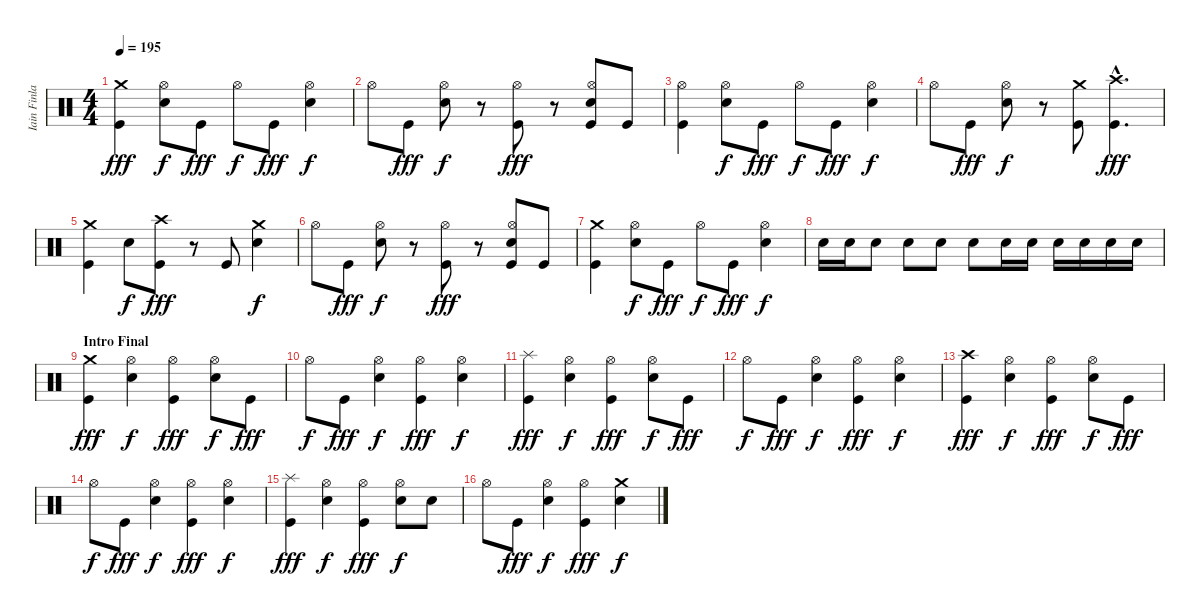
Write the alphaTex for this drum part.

\track ("Iain Finlay (Batería)" "Iain Finla") {instrument percussion}
\staff {score}
\articulation defaults
\ts (4 4)
\tempo 195
\clef neutral
\ks c
("Crash medium (hit)" "Kick (hit)").4{dy fff} ("Hi-Hat (open)" "Electric Snare (hit)").8{dy f} "Kick (hit)".8{dy fff} "Hi-Hat (open)".8{dy f} "Kick (hit)".8{dy fff} ("Hi-Hat (open)" "Electric Snare (hit)").4{dy f} |
"Hi-Hat (open)".8 "Kick (hit)".8{dy fff} ("Hi-Hat (open)" "Electric Snare (hit)").8{dy f} r.8 ("Hi-Hat (open)" "Kick (hit)").8{dy fff} r.8 ("Hi-Hat (open)" "Electric Snare (hit)" "Kick (hit)").8 "Kick (hit)".8 |
("Hi-Hat (open)" "Kick (hit)").4 ("Hi-Hat (open)" "Electric Snare (hit)").8{dy f} "Kick (hit)".8{dy fff} "Hi-Hat (open)".8{dy f} "Kick (hit)".8{dy fff} ("Hi-Hat (open)" "Electric Snare (hit)").4{dy f} |
"Hi-Hat (open)".8 "Kick (hit)".8{dy fff} ("Hi-Hat (open)" "Electric Snare (hit)").8{dy f} r.8 ("Crash medium (hit)" "Kick (hit)").8 ("Crash high (hit)"{hac} "Kick (hit)"{hac}).4{d dy fff} |
("Crash medium (hit)" "Kick (hit)").4 "Electric Snare (hit)".8{dy f} ("Crash high (hit)" "Kick (hit)").8{dy fff} r.8 "Kick (hit)".8 ("Crash medium (hit)" "Electric Snare (hit)").4{dy f} |
"Hi-Hat (open)".8 "Kick (hit)".8{dy fff} ("Hi-Hat (open)" "Electric Snare (hit)").8{dy f} r.8 ("Hi-Hat (open)" "Kick (hit)").8{dy fff} r.8 ("Hi-Hat (open)" "Electric Snare (hit)" "Kick (hit)").8 "Kick (hit)".8 |
("Crash medium (hit)" "Kick (hit)").4 ("Hi-Hat (open)" "Electric Snare (hit)").8{dy f} "Kick (hit)".8{dy fff} "Hi-Hat (open)".8{dy f} "Kick (hit)".8{dy fff} ("Hi-Hat (open)" "Electric Snare (hit)").4{dy f} |
"Electric Snare (hit)".16 "Electric Snare (hit)".16 "Electric Snare (hit)".8 "Electric Snare (hit)".8 "Electric Snare (hit)".8 "Electric Snare (hit)".8 "Electric Snare (hit)".16 "Electric Snare (hit)".16 "Electric Snare (hit)".16 "Electric Snare (hit)".16 "Electric Snare (hit)".16 "Electric Snare (hit)".16 |
\section ("" "Intro Final")
("Crash medium (hit)" "Kick (hit)").4{dy fff} ("Hi-Hat (open)" "Electric Snare (hit)").4{dy f} ("Hi-Hat (open)" "Kick (hit)").4{dy fff} ("Hi-Hat (open)" "Electric Snare (hit)").8{dy f} "Kick (hit)".8{dy fff} |
"Hi-Hat (open)".8{dy f} "Kick (hit)".8{dy fff} ("Hi-Hat (open)" "Electric Snare (hit)").4{dy f} ("Hi-Hat (open)" "Kick (hit)").4{dy fff} ("Hi-Hat (open)" "Electric Snare (hit)").4{dy f} |
("Splash (hit)" "Kick (hit)").4{dy fff} ("Hi-Hat (open)" "Electric Snare (hit)").4{dy f} ("Hi-Hat (open)" "Kick (hit)").4{dy fff} ("Hi-Hat (open)" "Electric Snare (hit)").8{dy f} "Kick (hit)".8{dy fff} |
"Hi-Hat (open)".8{dy f} "Kick (hit)".8{dy fff} ("Hi-Hat (open)" "Electric Snare (hit)").4{dy f} ("Hi-Hat (open)" "Kick (hit)").4{dy fff} ("Hi-Hat (open)" "Electric Snare (hit)").4{dy f} |
("Crash high (hit)" "Kick (hit)").4{dy fff} ("Hi-Hat (open)" "Electric Snare (hit)").4{dy f} ("Hi-Hat (open)" "Kick (hit)").4{dy fff} ("Hi-Hat (open)" "Electric Snare (hit)").8{dy f} "Kick (hit)".8{dy fff} |
"Hi-Hat (open)".8{dy f} "Kick (hit)".8{dy fff} ("Hi-Hat (open)" "Electric Snare (hit)").4{dy f} ("Hi-Hat (open)" "Kick (hit)").4{dy fff} ("Hi-Hat (open)" "Electric Snare (hit)").4{dy f} |
("Splash (hit)" "Kick (hit)").4{dy fff} ("Hi-Hat (open)" "Electric Snare (hit)").4{dy f} ("Hi-Hat (open)" "Kick (hit)").4{dy fff} ("Hi-Hat (open)" "Electric Snare (hit)").8{dy f} "Electric Snare (hit)".8 |
"Hi-Hat (open)".8 "Kick (hit)".8{dy fff} ("Hi-Hat (open)" "Electric Snare (hit)").4{dy f} ("Hi-Hat (open)" "Kick (hit)").4{dy fff} ("Crash medium (hit)" "Electric Snare (hit)").4{dy f}
